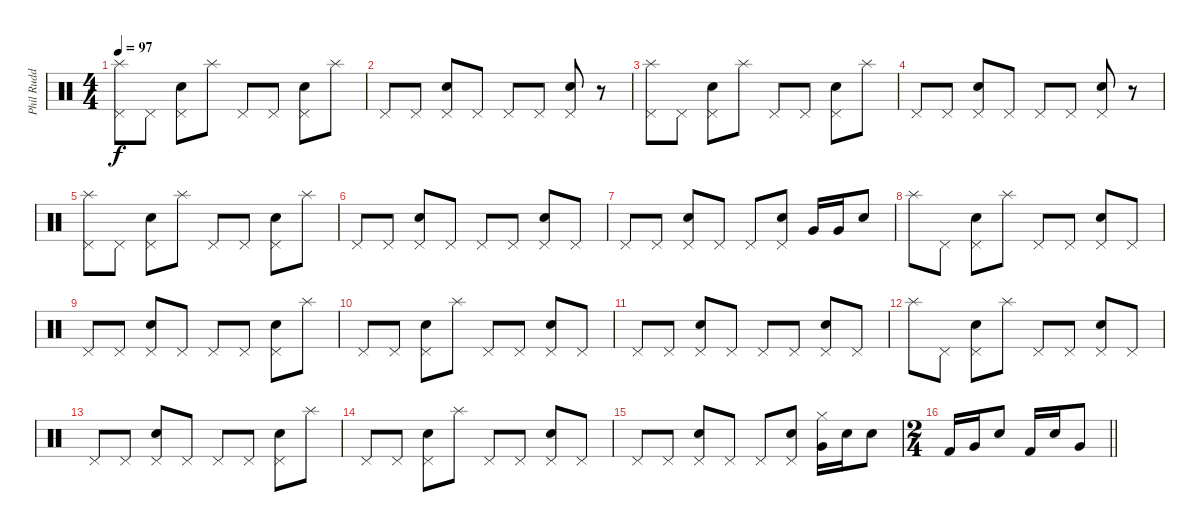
\track ("Phil Rudd - Drums" "Phil Rudd ") {instrument percussion}
\staff {score}
\articulation defaults
\ts (4 4)
\tempo 97
\clef neutral
\ks c
("Pedal Hi-Hat (hit)" "Splash (hit)").8{dy f} "Pedal Hi-Hat (hit)".8 ("Pedal Hi-Hat (hit)" "Snare (hit) 2").8 "Splash (hit)".8 "Pedal Hi-Hat (hit)".8 "Pedal Hi-Hat (hit)".8 ("Pedal Hi-Hat (hit)" "Snare (hit) 2").8 "Splash (hit)".8 |
"Pedal Hi-Hat (hit)".8 "Pedal Hi-Hat (hit)".8 ("Pedal Hi-Hat (hit)" "Snare (hit) 2").8 "Pedal Hi-Hat (hit)".8 "Pedal Hi-Hat (hit)".8 "Pedal Hi-Hat (hit)".8 ("Pedal Hi-Hat (hit)" "Snare (hit) 2").8 r.8 |
("Pedal Hi-Hat (hit)" "Splash (hit)").8 "Pedal Hi-Hat (hit)".8 ("Pedal Hi-Hat (hit)" "Snare (hit) 2").8 "Splash (hit)".8 "Pedal Hi-Hat (hit)".8 "Pedal Hi-Hat (hit)".8 ("Pedal Hi-Hat (hit)" "Snare (hit) 2").8 "Splash (hit)".8 |
"Pedal Hi-Hat (hit)".8 "Pedal Hi-Hat (hit)".8 ("Pedal Hi-Hat (hit)" "Snare (hit) 2").8 "Pedal Hi-Hat (hit)".8 "Pedal Hi-Hat (hit)".8 "Pedal Hi-Hat (hit)".8 ("Pedal Hi-Hat (hit)" "Snare (hit) 2").8 r.8 |
("Pedal Hi-Hat (hit)" "Splash (hit)").8 "Pedal Hi-Hat (hit)".8 ("Pedal Hi-Hat (hit)" "Snare (hit) 2").8 "Splash (hit)".8 "Pedal Hi-Hat (hit)".8 "Pedal Hi-Hat (hit)".8 ("Pedal Hi-Hat (hit)" "Snare (hit) 2").8 "Splash (hit)".8 |
"Pedal Hi-Hat (hit)".8 "Pedal Hi-Hat (hit)".8 ("Pedal Hi-Hat (hit)" "Snare (hit) 2").8 "Pedal Hi-Hat (hit)".8 "Pedal Hi-Hat (hit)".8 "Pedal Hi-Hat (hit)".8 ("Pedal Hi-Hat (hit)" "Snare (hit) 2").8 "Pedal Hi-Hat (hit)".8 |
"Pedal Hi-Hat (hit)".8 "Pedal Hi-Hat (hit)".8 ("Pedal Hi-Hat (hit)" "Snare (hit) 2").8 "Pedal Hi-Hat (hit)".8 "Pedal Hi-Hat (hit)".8 ("Pedal Hi-Hat (hit)" "Snare (hit) 2").8 "Very Low Tom (hit)".16 "Very Low Tom (hit)".16 "Snare (hit) 2".8 |
"Splash (hit)".8 "Pedal Hi-Hat (hit)".8 ("Pedal Hi-Hat (hit)" "Snare (hit) 2").8 "Splash (hit)".8 "Pedal Hi-Hat (hit)".8 "Pedal Hi-Hat (hit)".8 ("Pedal Hi-Hat (hit)" "Snare (hit) 2").8 "Pedal Hi-Hat (hit)".8 |
"Pedal Hi-Hat (hit)".8 "Pedal Hi-Hat (hit)".8 ("Pedal Hi-Hat (hit)" "Snare (hit) 2").8 "Pedal Hi-Hat (hit)".8 "Pedal Hi-Hat (hit)".8 "Pedal Hi-Hat (hit)".8 ("Pedal Hi-Hat (hit)" "Snare (hit) 2").8 "Splash (hit)".8 |
"Pedal Hi-Hat (hit)".8 "Pedal Hi-Hat (hit)".8 ("Pedal Hi-Hat (hit)" "Snare (hit) 2").8 "Splash (hit)".8 "Pedal Hi-Hat (hit)".8 "Pedal Hi-Hat (hit)".8 ("Pedal Hi-Hat (hit)" "Snare (hit) 2").8 "Pedal Hi-Hat (hit)".8 |
"Pedal Hi-Hat (hit)".8 "Pedal Hi-Hat (hit)".8 ("Pedal Hi-Hat (hit)" "Snare (hit) 2").8 "Pedal Hi-Hat (hit)".8 "Pedal Hi-Hat (hit)".8 "Pedal Hi-Hat (hit)".8 ("Pedal Hi-Hat (hit)" "Snare (hit) 2").8 "Pedal Hi-Hat (hit)".8 |
"Splash (hit)".8 "Pedal Hi-Hat (hit)".8 ("Pedal Hi-Hat (hit)" "Snare (hit) 2").8 "Splash (hit)".8 "Pedal Hi-Hat (hit)".8 "Pedal Hi-Hat (hit)".8 ("Pedal Hi-Hat (hit)" "Snare (hit) 2").8 "Pedal Hi-Hat (hit)".8 |
"Pedal Hi-Hat (hit)".8 "Pedal Hi-Hat (hit)".8 ("Pedal Hi-Hat (hit)" "Snare (hit) 2").8 "Pedal Hi-Hat (hit)".8 "Pedal Hi-Hat (hit)".8 "Pedal Hi-Hat (hit)".8 ("Pedal Hi-Hat (hit)" "Snare (hit) 2").8 "Splash (hit)".8 |
"Pedal Hi-Hat (hit)".8 "Pedal Hi-Hat (hit)".8 ("Pedal Hi-Hat (hit)" "Snare (hit) 2").8 "Splash (hit)".8 "Pedal Hi-Hat (hit)".8 "Pedal Hi-Hat (hit)".8 ("Pedal Hi-Hat (hit)" "Snare (hit) 2").8 "Pedal Hi-Hat (hit)".8 |
"Pedal Hi-Hat (hit)".8 "Pedal Hi-Hat (hit)".8 ("Pedal Hi-Hat (hit)" "Snare (hit) 2").8 "Pedal Hi-Hat (hit)".8 "Pedal Hi-Hat (hit)".8 ("Pedal Hi-Hat (hit)" "Snare (hit) 2").8 ("Hi-Hat (closed)" "Very Low Tom (hit)").16 "Snare (hit) 2".16 "Snare (hit) 2".8 |
\ts (2 4)
\barLineRight lightlight "Kick (hit) 2".16 "Very Low Tom (hit)".16 "Snare (hit) 2".8 "Kick (hit) 2".16 "Snare (hit) 2".16 "Very Low Tom (hit)".8
